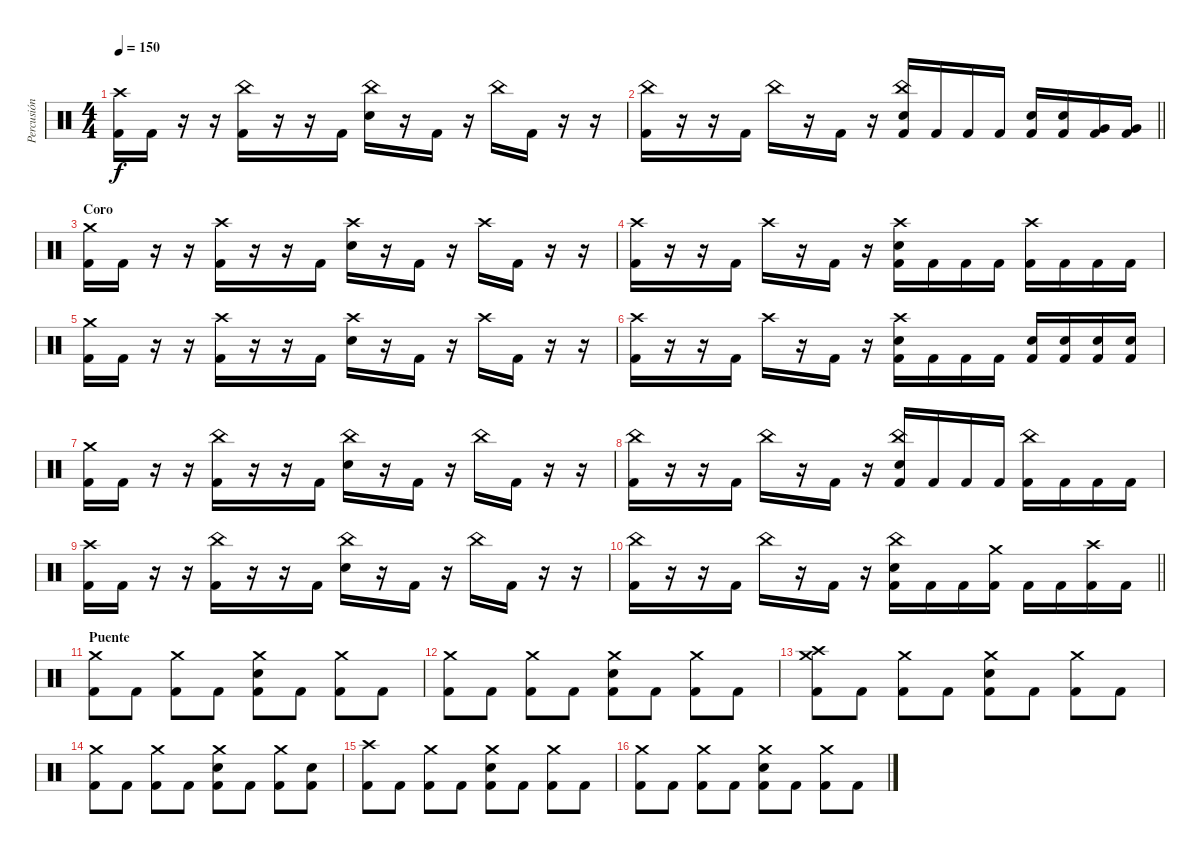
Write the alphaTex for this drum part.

\track ("Percusión" "Percusión") {instrument percussion}
\staff {score}
\articulation defaults
\ts (4 4)
\tempo 150
\clef neutral
\ks c
("Crash high (hit)" "Kick (hit) 2").16{dy f} "Kick (hit) 2".16 r.16 r.16 ("China (hit)" "Kick (hit) 2").16 r.16 r.16 "Kick (hit) 2".16 ("China (hit)" "Electric Snare (hit)").16 r.16 "Kick (hit) 2".16 r.16 "China (hit)".16 "Kick (hit) 2".16 r.16 r.16 |
\barLineRight lightlight
("China (hit)" "Kick (hit) 2").16 r.16 r.16 "Kick (hit) 2".16 "China (hit)".16 r.16 "Kick (hit) 2".16 r.16 ("China (hit)" "Electric Snare (hit)" "Kick (hit) 2").16 "Kick (hit) 2".16 "Kick (hit) 2".16 "Kick (hit) 2".16 ("Electric Snare (hit)" "Kick (hit) 2").16 ("Electric Snare (hit)" "Kick (hit) 2").16 ("Very Low Tom (hit)" "Kick (hit) 2").16 ("Very Low Tom (hit)" "Kick (hit) 2").16 |
\section ("" "Coro ")
("Crash medium (hit)" "Kick (hit) 2").16 "Kick (hit) 2".16 r.16 r.16 ("Crash high (hit)" "Kick (hit) 2").16 r.16 r.16 "Kick (hit) 2".16 ("Crash high (hit)" "Electric Snare (hit)").16 r.16 "Kick (hit) 2".16 r.16 "Crash high (hit)".16 "Kick (hit) 2".16 r.16 r.16 |
("Crash high (hit)" "Kick (hit) 2").16 r.16 r.16 "Kick (hit) 2".16 "Crash high (hit)".16 r.16 "Kick (hit) 2".16 r.16 ("Crash high (hit)" "Electric Snare (hit)" "Kick (hit) 2").16 "Kick (hit) 2".16 "Kick (hit) 2".16 "Kick (hit) 2".16 ("Crash high (hit)" "Kick (hit) 2").16 "Kick (hit) 2".16 "Kick (hit) 2".16 "Kick (hit) 2".16 |
("Crash medium (hit)" "Kick (hit) 2").16 "Kick (hit) 2".16 r.16 r.16 ("Crash high (hit)" "Kick (hit) 2").16 r.16 r.16 "Kick (hit) 2".16 ("Crash high (hit)" "Electric Snare (hit)").16 r.16 "Kick (hit) 2".16 r.16 "Crash high (hit)".16 "Kick (hit) 2".16 r.16 r.16 |
("Crash high (hit)" "Kick (hit) 2").16 r.16 r.16 "Kick (hit) 2".16 "Crash high (hit)".16 r.16 "Kick (hit) 2".16 r.16 ("Crash high (hit)" "Electric Snare (hit)" "Kick (hit) 2").16 "Kick (hit) 2".16 "Kick (hit) 2".16 "Kick (hit) 2".16 ("Electric Snare (hit)" "Kick (hit) 2").16 ("Electric Snare (hit)" "Kick (hit) 2").16 ("Electric Snare (hit)" "Kick (hit) 2").16 ("Electric Snare (hit)" "Kick (hit) 2").16 |
("Crash medium (hit)" "Kick (hit) 2").16 "Kick (hit) 2".16 r.16 r.16 ("China (hit)" "Kick (hit) 2").16 r.16 r.16 "Kick (hit) 2".16 ("China (hit)" "Electric Snare (hit)").16 r.16 "Kick (hit) 2".16 r.16 "China (hit)".16 "Kick (hit) 2".16 r.16 r.16 |
("China (hit)" "Kick (hit) 2").16 r.16 r.16 "Kick (hit) 2".16 "China (hit)".16 r.16 "Kick (hit) 2".16 r.16 ("China (hit)" "Electric Snare (hit)" "Kick (hit) 2").16 "Kick (hit) 2".16 "Kick (hit) 2".16 "Kick (hit) 2".16 ("China (hit)" "Kick (hit) 2").16 "Kick (hit) 2".16 "Kick (hit) 2".16 "Kick (hit) 2".16 |
("Crash high (hit)" "Kick (hit) 2").16 "Kick (hit) 2".16 r.16 r.16 ("China (hit)" "Kick (hit) 2").16 r.16 r.16 "Kick (hit) 2".16 ("China (hit)" "Electric Snare (hit)").16 r.16 "Kick (hit) 2".16 r.16 "China (hit)".16 "Kick (hit) 2".16 r.16 r.16 |
\barLineRight lightlight
("China (hit)" "Kick (hit) 2").16 r.16 r.16 "Kick (hit) 2".16 "China (hit)".16 r.16 "Kick (hit) 2".16 r.16 ("China (hit)" "Electric Snare (hit)" "Kick (hit) 2").16 "Kick (hit) 2".16 "Kick (hit) 2".16 ("Crash medium (hit)" "Kick (hit) 2").16 "Kick (hit) 2".16 "Kick (hit) 2".16 ("Crash high (hit)" "Kick (hit) 2").16 "Kick (hit) 2".16 |
\section ("" "Puente")
("Crash medium (hit)" "Kick (hit) 2").8 "Kick (hit) 2".8 ("Crash medium (hit)" "Kick (hit) 2").8 "Kick (hit) 2".8 ("Crash medium (hit)" "Electric Snare (hit)" "Kick (hit) 2").8 "Kick (hit) 2".8 ("Crash medium (hit)" "Kick (hit) 2").8 "Kick (hit) 2".8 |
("Crash medium (hit)" "Kick (hit) 2").8 "Kick (hit) 2".8 ("Crash medium (hit)" "Kick (hit) 2").8 "Kick (hit) 2".8 ("Crash medium (hit)" "Electric Snare (hit)" "Kick (hit) 2").8 "Kick (hit) 2".8 ("Crash medium (hit)" "Kick (hit) 2").8 "Kick (hit) 2".8 |
("Crash medium (hit)" "Crash high (hit)" "Kick (hit) 2").8 "Kick (hit) 2".8 ("Crash medium (hit)" "Kick (hit) 2").8 "Kick (hit) 2".8 ("Crash medium (hit)" "Electric Snare (hit)" "Kick (hit) 2").8 "Kick (hit) 2".8 ("Crash medium (hit)" "Kick (hit) 2").8 "Kick (hit) 2".8 |
("Crash medium (hit)" "Kick (hit) 2").8 "Kick (hit) 2".8 ("Crash medium (hit)" "Kick (hit) 2").8 "Kick (hit) 2".8 ("Crash medium (hit)" "Electric Snare (hit)" "Kick (hit) 2").8 "Kick (hit) 2".8 ("Crash medium (hit)" "Kick (hit) 2").8 ("Electric Snare (hit)" "Kick (hit) 2").8 |
("Crash high (hit)" "Kick (hit) 2").8 "Kick (hit) 2".8 ("Crash medium (hit)" "Kick (hit) 2").8 "Kick (hit) 2".8 ("Crash medium (hit)" "Electric Snare (hit)" "Kick (hit) 2").8 "Kick (hit) 2".8 ("Crash medium (hit)" "Kick (hit) 2").8 "Kick (hit) 2".8 |
("Crash medium (hit)" "Kick (hit) 2").8 "Kick (hit) 2".8 ("Crash medium (hit)" "Kick (hit) 2").8 "Kick (hit) 2".8 ("Crash medium (hit)" "Electric Snare (hit)" "Kick (hit) 2").8 "Kick (hit) 2".8 ("Crash medium (hit)" "Kick (hit) 2").8 "Kick (hit) 2".8
